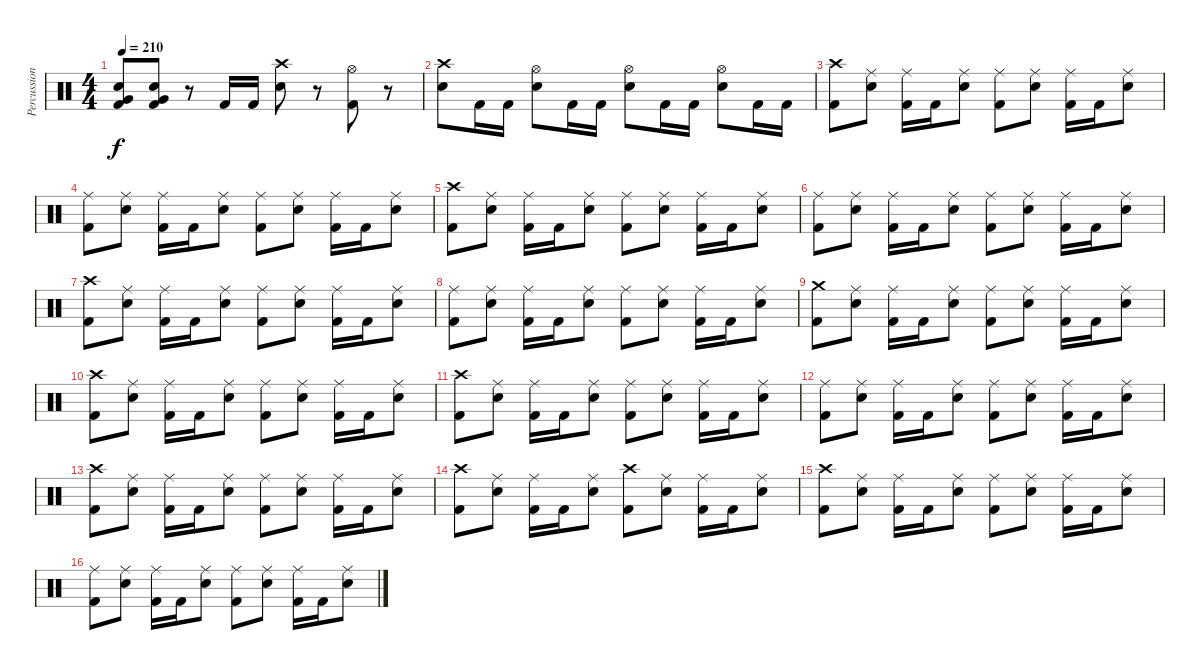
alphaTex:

\track ("Percussion" "Percussion") {instrument percussion}
\staff {score}
\articulation defaults
\ts (4 4)
\tempo 210
\clef neutral
\ks c
("Very Low Tom (hit)" "Electric Snare (hit)" "Kick (hit) 2").8{dy f} ("Very Low Tom (hit)" "Electric Snare (hit)" "Kick (hit) 2").8 r.8 "Kick (hit) 2".16 "Kick (hit) 2".16 ("Crash high (hit)" "Electric Snare (hit)").8 r.8 ("Hi-Hat (open)" "Kick (hit) 2").8 r.8 |
("Crash high (hit)" "Electric Snare (hit)").8 "Kick (hit) 2".16 "Kick (hit) 2".16 ("Hi-Hat (open)" "Electric Snare (hit)").8 "Kick (hit) 2".16 "Kick (hit) 2".16 ("Hi-Hat (open)" "Electric Snare (hit)").8 "Kick (hit) 2".16 "Kick (hit) 2".16 ("Hi-Hat (open)" "Electric Snare (hit)").8 "Kick (hit) 2".16 "Kick (hit) 2".16 |
("Crash high (hit)" "Kick (hit) 2").8 ("Ride (middle)" "Electric Snare (hit)").8 ("Ride (middle)" "Kick (hit) 2").16 "Kick (hit) 2".16 ("Ride (middle)" "Electric Snare (hit)").8 ("Ride (middle)" "Kick (hit) 2").8 ("Ride (middle)" "Electric Snare (hit)").8 ("Ride (middle)" "Kick (hit) 2").16 "Kick (hit) 2".16 ("Ride (middle)" "Electric Snare (hit)").8 |
("Ride (middle)" "Kick (hit) 2").8 ("Ride (middle)" "Electric Snare (hit)").8 ("Ride (middle)" "Kick (hit) 2").16 "Kick (hit) 2".16 ("Ride (middle)" "Electric Snare (hit)").8 ("Ride (middle)" "Kick (hit) 2").8 ("Ride (middle)" "Electric Snare (hit)").8 ("Ride (middle)" "Kick (hit) 2").16 "Kick (hit) 2".16 ("Ride (middle)" "Electric Snare (hit)").8 |
("Crash high (hit)" "Kick (hit) 2").8 ("Ride (middle)" "Electric Snare (hit)").8 ("Ride (middle)" "Kick (hit) 2").16 "Kick (hit) 2".16 ("Ride (middle)" "Electric Snare (hit)").8 ("Ride (middle)" "Kick (hit) 2").8 ("Ride (middle)" "Electric Snare (hit)").8 ("Ride (middle)" "Kick (hit) 2").16 "Kick (hit) 2".16 ("Ride (middle)" "Electric Snare (hit)").8 |
("Ride (middle)" "Kick (hit) 2").8 ("Ride (middle)" "Electric Snare (hit)").8 ("Ride (middle)" "Kick (hit) 2").16 "Kick (hit) 2".16 ("Ride (middle)" "Electric Snare (hit)").8 ("Ride (middle)" "Kick (hit) 2").8 ("Ride (middle)" "Electric Snare (hit)").8 ("Ride (middle)" "Kick (hit) 2").16 "Kick (hit) 2".16 ("Ride (middle)" "Electric Snare (hit)").8 |
("Crash high (hit)" "Kick (hit) 2").8 ("Ride (middle)" "Electric Snare (hit)").8 ("Ride (middle)" "Kick (hit) 2").16 "Kick (hit) 2".16 ("Ride (middle)" "Electric Snare (hit)").8 ("Ride (middle)" "Kick (hit) 2").8 ("Ride (middle)" "Electric Snare (hit)").8 ("Ride (middle)" "Kick (hit) 2").16 "Kick (hit) 2".16 ("Ride (middle)" "Electric Snare (hit)").8 |
("Ride (middle)" "Kick (hit) 2").8 ("Ride (middle)" "Electric Snare (hit)").8 ("Ride (middle)" "Kick (hit) 2").16 "Kick (hit) 2".16 ("Ride (middle)" "Electric Snare (hit)").8 ("Ride (middle)" "Kick (hit) 2").8 ("Ride (middle)" "Electric Snare (hit)").8 ("Ride (middle)" "Kick (hit) 2").16 "Kick (hit) 2".16 ("Ride (middle)" "Electric Snare (hit)").8 |
("Crash medium (hit)" "Kick (hit) 2").8 ("Ride (middle)" "Electric Snare (hit)").8 ("Ride (middle)" "Kick (hit) 2").16 "Kick (hit) 2".16 ("Ride (middle)" "Electric Snare (hit)").8 ("Ride (middle)" "Kick (hit) 2").8 ("Ride (middle)" "Electric Snare (hit)").8 ("Ride (middle)" "Kick (hit) 2").16 "Kick (hit) 2".16 ("Ride (middle)" "Electric Snare (hit)").8 |
("Crash high (hit)" "Kick (hit) 2").8 ("Ride (middle)" "Electric Snare (hit)").8 ("Ride (middle)" "Kick (hit) 2").16 "Kick (hit) 2".16 ("Ride (middle)" "Electric Snare (hit)").8 ("Ride (middle)" "Kick (hit) 2").8 ("Ride (middle)" "Electric Snare (hit)").8 ("Ride (middle)" "Kick (hit) 2").16 "Kick (hit) 2".16 ("Ride (middle)" "Electric Snare (hit)").8 |
("Crash high (hit)" "Kick (hit) 2").8 ("Ride (middle)" "Electric Snare (hit)").8 ("Ride (middle)" "Kick (hit) 2").16 "Kick (hit) 2".16 ("Ride (middle)" "Electric Snare (hit)").8 ("Ride (middle)" "Kick (hit) 2").8 ("Ride (middle)" "Electric Snare (hit)").8 ("Ride (middle)" "Kick (hit) 2").16 "Kick (hit) 2".16 ("Ride (middle)" "Electric Snare (hit)").8 |
("Ride (middle)" "Kick (hit) 2").8 ("Ride (middle)" "Electric Snare (hit)").8 ("Ride (middle)" "Kick (hit) 2").16 "Kick (hit) 2".16 ("Ride (middle)" "Electric Snare (hit)").8 ("Ride (middle)" "Kick (hit) 2").8 ("Ride (middle)" "Electric Snare (hit)").8 ("Ride (middle)" "Kick (hit) 2").16 "Kick (hit) 2".16 ("Ride (middle)" "Electric Snare (hit)").8 |
("Crash high (hit)" "Kick (hit) 2").8 ("Ride (middle)" "Electric Snare (hit)").8 ("Ride (middle)" "Kick (hit) 2").16 "Kick (hit) 2".16 ("Ride (middle)" "Electric Snare (hit)").8 ("Ride (middle)" "Kick (hit) 2").8 ("Ride (middle)" "Electric Snare (hit)").8 ("Ride (middle)" "Kick (hit) 2").16 "Kick (hit) 2".16 ("Ride (middle)" "Electric Snare (hit)").8 |
("Crash high (hit)" "Kick (hit) 2").8 ("Ride (middle)" "Electric Snare (hit)").8 ("Ride (middle)" "Kick (hit) 2").16 "Kick (hit) 2".16 ("Ride (middle)" "Electric Snare (hit)").8 ("Crash high (hit)" "Kick (hit) 2").8 ("Ride (middle)" "Electric Snare (hit)").8 ("Ride (middle)" "Kick (hit) 2").16 "Kick (hit) 2".16 ("Ride (middle)" "Electric Snare (hit)").8 |
("Crash high (hit)" "Kick (hit) 2").8 ("Ride (middle)" "Electric Snare (hit)").8 ("Ride (middle)" "Kick (hit) 2").16 "Kick (hit) 2".16 ("Ride (middle)" "Electric Snare (hit)").8 ("Ride (middle)" "Kick (hit) 2").8 ("Ride (middle)" "Electric Snare (hit)").8 ("Ride (middle)" "Kick (hit) 2").16 "Kick (hit) 2".16 ("Ride (middle)" "Electric Snare (hit)").8 |
("Ride (middle)" "Kick (hit) 2").8 ("Ride (middle)" "Electric Snare (hit)").8 ("Ride (middle)" "Kick (hit) 2").16 "Kick (hit) 2".16 ("Ride (middle)" "Electric Snare (hit)").8 ("Ride (middle)" "Kick (hit) 2").8 ("Ride (middle)" "Electric Snare (hit)").8 ("Ride (middle)" "Kick (hit) 2").16 "Kick (hit) 2".16 ("Ride (middle)" "Electric Snare (hit)").8
